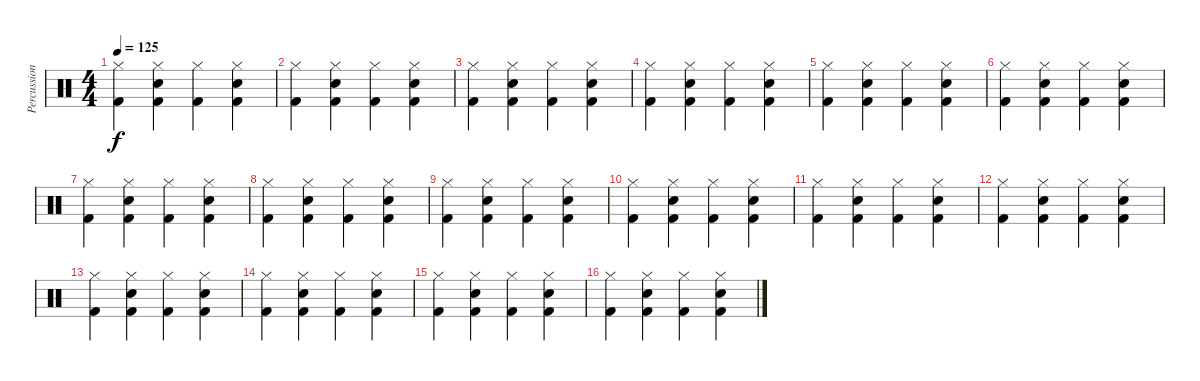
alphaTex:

\track ("Percussion" "Percussion") {instrument percussion}
\staff {score}
\articulation defaults
\ts (4 4)
\tempo 125
\clef neutral
\ks c
("Hi-Hat (closed)" "Kick (hit) 2").4{dy f} ("Hi-Hat (closed)" "Hand Clap (hit)" "Kick (hit) 2").4 ("Hi-Hat (closed)" "Kick (hit) 2").4 ("Hi-Hat (closed)" "Hand Clap (hit)" "Kick (hit) 2").4 |
("Hi-Hat (closed)" "Kick (hit) 2").4 ("Hi-Hat (closed)" "Hand Clap (hit)" "Kick (hit) 2").4 ("Hi-Hat (closed)" "Kick (hit) 2").4 ("Hi-Hat (closed)" "Hand Clap (hit)" "Kick (hit) 2").4 |
("Hi-Hat (closed)" "Kick (hit) 2").4 ("Hi-Hat (closed)" "Hand Clap (hit)" "Kick (hit) 2").4 ("Hi-Hat (closed)" "Kick (hit) 2").4 ("Hi-Hat (closed)" "Hand Clap (hit)" "Kick (hit) 2").4 |
("Hi-Hat (closed)" "Kick (hit) 2").4 ("Hi-Hat (closed)" "Hand Clap (hit)" "Kick (hit) 2").4 ("Hi-Hat (closed)" "Kick (hit) 2").4 ("Hi-Hat (closed)" "Hand Clap (hit)" "Kick (hit) 2").4 |
("Hi-Hat (closed)" "Kick (hit) 2").4 ("Hi-Hat (closed)" "Hand Clap (hit)" "Kick (hit) 2").4 ("Hi-Hat (closed)" "Kick (hit) 2").4 ("Hi-Hat (closed)" "Hand Clap (hit)" "Kick (hit) 2").4 |
("Hi-Hat (closed)" "Kick (hit) 2").4 ("Hi-Hat (closed)" "Hand Clap (hit)" "Kick (hit) 2").4 ("Hi-Hat (closed)" "Kick (hit) 2").4 ("Hi-Hat (closed)" "Hand Clap (hit)" "Kick (hit) 2").4 |
("Hi-Hat (closed)" "Kick (hit) 2").4 ("Hi-Hat (closed)" "Hand Clap (hit)" "Kick (hit) 2").4 ("Hi-Hat (closed)" "Kick (hit) 2").4 ("Hi-Hat (closed)" "Hand Clap (hit)" "Kick (hit) 2").4 |
("Hi-Hat (closed)" "Kick (hit) 2").4 ("Hi-Hat (closed)" "Hand Clap (hit)" "Kick (hit) 2").4 ("Hi-Hat (closed)" "Kick (hit) 2").4 ("Hi-Hat (closed)" "Hand Clap (hit)" "Kick (hit) 2").4 |
("Hi-Hat (closed)" "Kick (hit) 2").4 ("Hi-Hat (closed)" "Hand Clap (hit)" "Kick (hit) 2").4 ("Hi-Hat (closed)" "Kick (hit) 2").4 ("Hi-Hat (closed)" "Hand Clap (hit)" "Kick (hit) 2").4 |
("Hi-Hat (closed)" "Kick (hit) 2").4 ("Hi-Hat (closed)" "Hand Clap (hit)" "Kick (hit) 2").4 ("Hi-Hat (closed)" "Kick (hit) 2").4 ("Hi-Hat (closed)" "Hand Clap (hit)" "Kick (hit) 2").4 |
("Hi-Hat (closed)" "Kick (hit) 2").4 ("Hi-Hat (closed)" "Hand Clap (hit)" "Kick (hit) 2").4 ("Hi-Hat (closed)" "Kick (hit) 2").4 ("Hi-Hat (closed)" "Hand Clap (hit)" "Kick (hit) 2").4 |
("Hi-Hat (closed)" "Kick (hit) 2").4 ("Hi-Hat (closed)" "Hand Clap (hit)" "Kick (hit) 2").4 ("Hi-Hat (closed)" "Kick (hit) 2").4 ("Hi-Hat (closed)" "Hand Clap (hit)" "Kick (hit) 2").4 |
("Hi-Hat (closed)" "Kick (hit) 2").4 ("Hi-Hat (closed)" "Hand Clap (hit)" "Kick (hit) 2").4 ("Hi-Hat (closed)" "Kick (hit) 2").4 ("Hi-Hat (closed)" "Hand Clap (hit)" "Kick (hit) 2").4 |
("Hi-Hat (closed)" "Kick (hit) 2").4 ("Hi-Hat (closed)" "Hand Clap (hit)" "Kick (hit) 2").4 ("Hi-Hat (closed)" "Kick (hit) 2").4 ("Hi-Hat (closed)" "Hand Clap (hit)" "Kick (hit) 2").4 |
("Hi-Hat (closed)" "Kick (hit) 2").4 ("Hi-Hat (closed)" "Hand Clap (hit)" "Kick (hit) 2").4 ("Hi-Hat (closed)" "Kick (hit) 2").4 ("Hi-Hat (closed)" "Hand Clap (hit)" "Kick (hit) 2").4 |
("Hi-Hat (closed)" "Kick (hit) 2").4 ("Hi-Hat (closed)" "Hand Clap (hit)" "Kick (hit) 2").4 ("Hi-Hat (closed)" "Kick (hit) 2").4 ("Hi-Hat (closed)" "Hand Clap (hit)" "Kick (hit) 2").4
